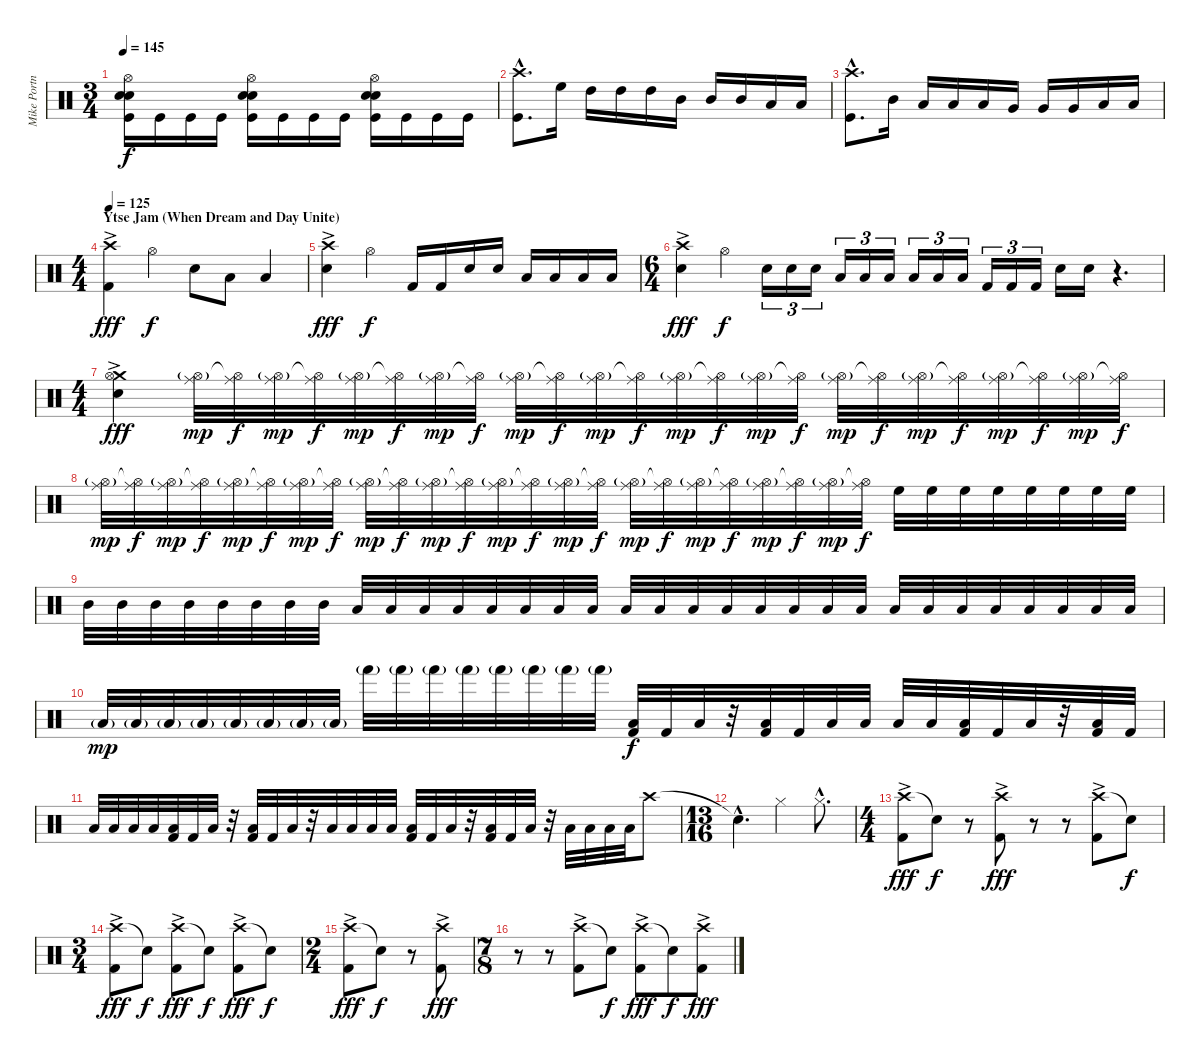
\track ("Mike Portnoy Drums" "Mike Portn") {instrument percussion}
\staff {score}
\articulation defaults
\ts (3 4)
\tempo 145
\clef neutral
\ks c
("Hi-Hat (open)" "Snare (hit) 2" "Electric Snare (hit)" "Kick (hit)").16{dy f} "Kick (hit)".16 "Kick (hit)".16 "Kick (hit)".16 ("Hi-Hat (open)" "Snare (hit) 2" "Electric Snare (hit)" "Kick (hit)").16 "Kick (hit)".16 "Kick (hit)".16 "Kick (hit)".16 ("Hi-Hat (open)" "Snare (hit) 2" "Electric Snare (hit)" "Kick (hit)").16 "Kick (hit)".16 "Kick (hit)".16 "Kick (hit)".16 |
("Crash high (hit)"{hac} "Kick (hit)"{hac}).8{d} "High Floor Tom (hit)".16 "High Tom (hit)".16 "High Tom (hit)".16 "High Tom (hit)".16 "Mid Tom (hit)".16 "Mid Tom (hit)".16 "Mid Tom (hit)".16 "Low Tom (hit)".16 "Low Tom (hit)".16 |
("Crash high (hit)"{hac} "Kick (hit)"{hac}).8{d} "Mid Tom (hit)".16 "Low Tom (hit)".16 "Low Tom (hit)".16 "Low Tom (hit)".16 "Very Low Tom (hit)".16 "Very Low Tom (hit)".16 "Very Low Tom (hit)".16 "Low Floor Tom (hit)".16 "Low Floor Tom (hit)".16 |
\ts (4 4)
\section ("" "Ytse Jam (When Dream and Day Unite)")
\tempo 125
("Crash high (hit)"{ac} "Kick (hit) 2").4{dy fff volume 14} "Hi-Hat (open)".4{dy f} "Snare (hit) 2".8 "Low Tom (hit)".8 "Low Floor Tom (hit)".4 |
("Crash high (hit)"{ac} "Snare (hit) 2").4{dy fff} "Hi-Hat (open)".4{dy f} "Kick (hit) 2".16 "Kick (hit) 2".16 "Snare (hit) 2".16 "Snare (hit) 2".16 "Low Tom (hit)".16 "Low Tom (hit)".16 "Low Floor Tom (hit)".16 "Low Floor Tom (hit)".16 |
\ts (6 4)
("Crash high (hit)"{ac} "Snare (hit) 2").4{dy fff} "Hi-Hat (open)".4{dy f} "Snare (hit) 2".16{tu (3 2)} "Snare (hit) 2".16{tu (3 2)} "Snare (hit) 2".16{tu (3 2)} "Low Tom (hit)".16{tu (3 2)} "Low Tom (hit)".16{tu (3 2)} "Low Tom (hit)".16{tu (3 2)} "Low Floor Tom (hit)".16{tu (3 2)} "Low Floor Tom (hit)".16{tu (3 2)} "Low Floor Tom (hit)".16{tu (3 2)} "Kick (hit) 2".16{tu (3 2)} "Kick (hit) 2".16{tu (3 2)} "Kick (hit) 2".16{tu (3 2)} "Snare (hit) 2".16 "Snare (hit) 2".16 r.4{d} |
\ts (4 4)
("Crash medium (hit)"{ac} "Hi-Hat (open)" "Snare (hit) 2").4{dy fff} ("Ride (middle)" "Hi-Hat (open)"{g}).32{dy mp volume 10} ("Ride (middle)" "Hi-Hat (open)"{t}).32{dy f} ("Ride (middle)" "Hi-Hat (open)"{g}).32{dy mp} ("Ride (middle)" "Hi-Hat (open)"{t}).32{dy f} ("Ride (middle)" "Hi-Hat (open)"{g}).32{dy mp} ("Ride (middle)" "Hi-Hat (open)"{t}).32{dy f} ("Ride (middle)" "Hi-Hat (open)"{g}).32{dy mp} ("Ride (middle)" "Hi-Hat (open)"{t}).32{dy f} ("Ride (middle)" "Hi-Hat (open)"{g}).32{dy mp} ("Ride (middle)" "Hi-Hat (open)"{t}).32{dy f} ("Ride (middle)" "Hi-Hat (open)"{g}).32{dy mp} ("Ride (middle)" "Hi-Hat (open)"{t}).32{dy f} ("Ride (middle)" "Hi-Hat (open)"{g}).32{dy mp} ("Ride (middle)" "Hi-Hat (open)"{t}).32{dy f} ("Ride (middle)" "Hi-Hat (open)"{g}).32{dy mp} ("Ride (middle)" "Hi-Hat (open)"{t}).32{dy f} ("Ride (middle)" "Hi-Hat (open)"{g}).32{dy mp} ("Ride (middle)" "Hi-Hat (open)"{t}).32{dy f} ("Ride (middle)" "Hi-Hat (open)"{g}).32{dy mp} ("Ride (middle)" "Hi-Hat (open)"{t}).32{dy f} ("Ride (middle)" "Hi-Hat (open)"{g}).32{dy mp} ("Ride (middle)" "Hi-Hat (open)"{t}).32{dy f} ("Ride (middle)" "Hi-Hat (open)"{g}).32{dy mp} ("Ride (middle)" "Hi-Hat (open)"{t}).32{dy f} |
("Ride (middle)" "Hi-Hat (open)"{g}).32{dy mp} ("Ride (middle)" "Hi-Hat (open)"{t}).32{dy f} ("Ride (middle)" "Hi-Hat (open)"{g}).32{dy mp} ("Ride (middle)" "Hi-Hat (open)"{t}).32{dy f} ("Ride (middle)" "Hi-Hat (open)"{g}).32{dy mp} ("Ride (middle)" "Hi-Hat (open)"{t}).32{dy f} ("Ride (middle)" "Hi-Hat (open)"{g}).32{dy mp} ("Ride (middle)" "Hi-Hat (open)"{t}).32{dy f} ("Ride (middle)" "Hi-Hat (open)"{g}).32{dy mp} ("Ride (middle)" "Hi-Hat (open)"{t}).32{dy f} ("Ride (middle)" "Hi-Hat (open)"{g}).32{dy mp} ("Ride (middle)" "Hi-Hat (open)"{t}).32{dy f} ("Ride (middle)" "Hi-Hat (open)"{g}).32{dy mp} ("Ride (middle)" "Hi-Hat (open)"{t}).32{dy f} ("Ride (middle)" "Hi-Hat (open)"{g}).32{dy mp} ("Ride (middle)" "Hi-Hat (open)"{t}).32{dy f} ("Ride (middle)" "Hi-Hat (open)"{g}).32{dy mp} ("Ride (middle)" "Hi-Hat (open)"{t}).32{dy f} ("Ride (middle)" "Hi-Hat (open)"{g}).32{dy mp} ("Ride (middle)" "Hi-Hat (open)"{t}).32{dy f} ("Ride (middle)" "Hi-Hat (open)"{g}).32{dy mp} ("Ride (middle)" "Hi-Hat (open)"{t}).32{dy f} ("Ride (middle)" "Hi-Hat (open)"{g}).32{dy mp} ("Ride (middle)" "Hi-Hat (open)"{t}).32{dy f} "High Floor Tom (hit)".32 "High Floor Tom (hit)".32 "High Floor Tom (hit)".32 "High Floor Tom (hit)".32 "High Floor Tom (hit)".32 "High Floor Tom (hit)".32 "High Floor Tom (hit)".32 "High Floor Tom (hit)".32 |
"Mid Tom (hit)".32 "Mid Tom (hit)".32 "Mid Tom (hit)".32 "Mid Tom (hit)".32 "Mid Tom (hit)".32 "Mid Tom (hit)".32 "Mid Tom (hit)".32 "Mid Tom (hit)".32 "Low Tom (hit)".32 "Low Tom (hit)".32 "Low Tom (hit)".32 "Low Tom (hit)".32 "Low Tom (hit)".32 "Low Tom (hit)".32 "Low Tom (hit)".32 "Low Tom (hit)".32 "Low Floor Tom (hit)".32 "Low Floor Tom (hit)".32 "Low Floor Tom (hit)".32 "Low Floor Tom (hit)".32 "Low Floor Tom (hit)".32 "Low Floor Tom (hit)".32 "Low Floor Tom (hit)".32 "Low Floor Tom (hit)".32 "Low Floor Tom (hit)".32 "Low Floor Tom (hit)".32 "Low Floor Tom (hit)".32 "Low Floor Tom (hit)".32 "Low Floor Tom (hit)".32 "Low Floor Tom (hit)".32 "Low Floor Tom (hit)".32 "Low Floor Tom (hit)".32 |
"Low Floor Tom (hit)"{g}.32{dy mp} "Low Floor Tom (hit)"{g}.32 "Low Floor Tom (hit)"{g}.32 "Low Floor Tom (hit)"{g}.32 "Low Floor Tom (hit)"{g}.32 "Low Floor Tom (hit)"{g}.32 "Low Floor Tom (hit)"{g}.32 "Low Floor Tom (hit)"{g}.32 "Hand (hit)"{g}.32 "Hand (hit)"{g}.32 "Hand (hit)"{g}.32 "Hand (hit)"{g}.32 "Hand (hit)"{g}.32 "Hand (hit)"{g}.32 "Hand (hit)"{g}.32 "Hand (hit)"{g}.32 ("Low Floor Tom (hit)" "Kick (hit) 2").32{dy f} "Kick (hit) 2".32 "Low Floor Tom (hit)".32 r.32 ("Low Floor Tom (hit)" "Kick (hit) 2").32 "Kick (hit) 2".32 "Low Floor Tom (hit)".32 "Low Floor Tom (hit)".32 "Low Floor Tom (hit)".32 "Low Floor Tom (hit)".32 ("Low Floor Tom (hit)" "Kick (hit) 2").32 "Kick (hit) 2".32 "Low Floor Tom (hit)".32 r.32 ("Low Floor Tom (hit)" "Kick (hit) 2").32 "Kick (hit) 2".32 |
"Low Floor Tom (hit)".32 "Low Floor Tom (hit)".32 "Low Floor Tom (hit)".32 "Low Floor Tom (hit)".32 ("Low Floor Tom (hit)" "Kick (hit) 2").32 "Kick (hit) 2".32 "Low Floor Tom (hit)".32 r.32 ("Low Floor Tom (hit)" "Kick (hit) 2").32 "Kick (hit) 2".32 "Low Floor Tom (hit)".32 r.32 "Low Floor Tom (hit)".32 "Low Floor Tom (hit)".32 "Low Floor Tom (hit)".32 "Low Floor Tom (hit)".32 ("Low Floor Tom (hit)" "Kick (hit) 2").32 "Kick (hit) 2".32 "Low Floor Tom (hit)".32 r.32 ("Low Floor Tom (hit)" "Kick (hit) 2").32 "Kick (hit) 2".32 "Low Floor Tom (hit)".32 r.32 "Low Floor Tom (hit)".32 "Low Floor Tom (hit)".32 "Low Floor Tom (hit)".32 "Low Floor Tom (hit)".32 "Crash high (hit)".8{volume 13} |
\ts (13 16)
"Snare (hit)"{hac t}.4{d} "Hi-Hat (closed)".4 "Hi-Hat (closed)"{hac}.8{d} |
\ts (4 4)
("Crash high (hit)"{ac} "Kick (hit) 2").8{dy fff} "Snare (hit)"{t}.8{dy f} r.8 ("Crash high (hit)"{ac} "Kick (hit) 2").8{dy fff} r.8 r.8 ("Crash high (hit)"{ac} "Kick (hit) 2").8 "Snare (hit)"{t}.8{dy f} |
\ts (3 4)
("Crash high (hit)"{ac} "Kick (hit) 2").8{dy fff} "Snare (hit)"{t}.8{dy f} ("Crash high (hit)"{ac} "Kick (hit) 2").8{dy fff} "Snare (hit)"{t}.8{dy f} ("Crash high (hit)"{ac} "Kick (hit) 2").8{dy fff} "Snare (hit)"{t}.8{dy f} |
\ts (2 4)
("Crash high (hit)"{ac} "Kick (hit) 2").8{dy fff} "Snare (hit)"{t}.8{dy f} r.8 ("Crash high (hit)"{ac} "Kick (hit) 2").8{dy fff} |
\ts (7 8)
r.8 r.8 ("Crash high (hit)"{ac} "Kick (hit) 2").8 "Snare (hit)"{t}.8{dy f} ("Crash high (hit)"{ac} "Kick (hit) 2").8{dy fff} "Snare (hit)"{t}.8{dy f} ("Crash high (hit)"{ac} "Kick (hit) 2").8{dy fff}
